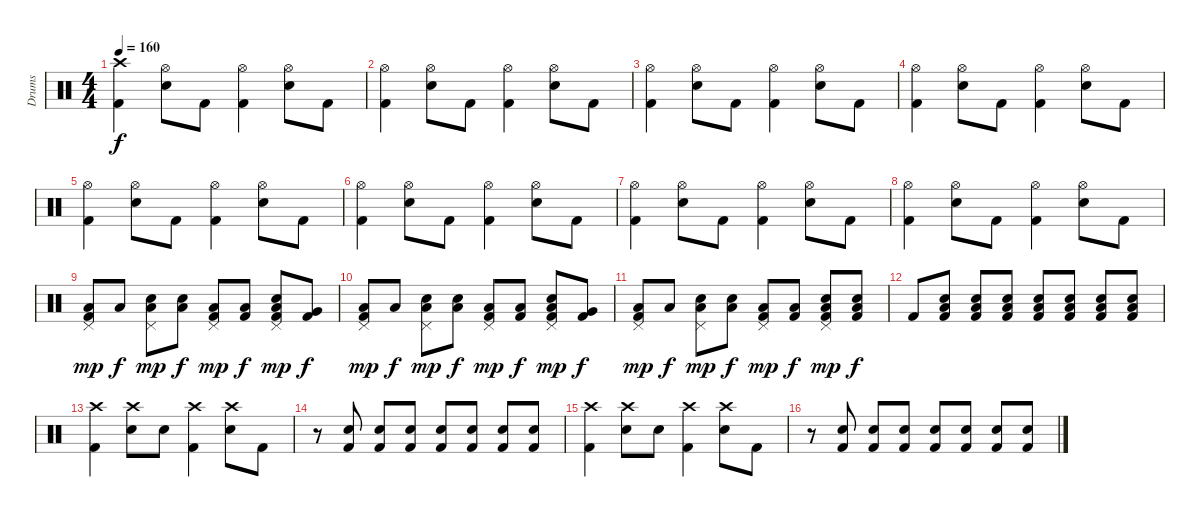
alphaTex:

\track ("Drums" "Drums") {instrument percussion}
\staff {score}
\articulation defaults
\ts (4 4)
\tempo 160
\clef neutral
\ks c
("Crash high (hit)" "Kick (hit) 2").4{dy f} ("Hi-Hat (open)" "Electric Snare (hit)").8 "Kick (hit) 2".8 ("Hi-Hat (open)" "Kick (hit) 2").4 ("Hi-Hat (open)" "Electric Snare (hit)").8 "Kick (hit) 2".8 |
("Hi-Hat (open)" "Kick (hit) 2").4 ("Hi-Hat (open)" "Electric Snare (hit)").8 "Kick (hit) 2".8 ("Hi-Hat (open)" "Kick (hit) 2").4 ("Hi-Hat (open)" "Electric Snare (hit)").8 "Kick (hit) 2".8 |
("Hi-Hat (open)" "Kick (hit) 2").4 ("Hi-Hat (open)" "Electric Snare (hit)").8 "Kick (hit) 2".8 ("Hi-Hat (open)" "Kick (hit) 2").4 ("Hi-Hat (open)" "Electric Snare (hit)").8 "Kick (hit) 2".8 |
("Hi-Hat (open)" "Kick (hit) 2").4 ("Hi-Hat (open)" "Electric Snare (hit)").8 "Kick (hit) 2".8 ("Hi-Hat (open)" "Kick (hit) 2").4 ("Hi-Hat (open)" "Electric Snare (hit)").8 "Kick (hit) 2".8 |
("Hi-Hat (open)" "Kick (hit) 2").4 ("Hi-Hat (open)" "Electric Snare (hit)").8 "Kick (hit) 2".8 ("Hi-Hat (open)" "Kick (hit) 2").4 ("Hi-Hat (open)" "Electric Snare (hit)").8 "Kick (hit) 2".8 |
("Hi-Hat (open)" "Kick (hit) 2").4 ("Hi-Hat (open)" "Electric Snare (hit)").8 "Kick (hit) 2".8 ("Hi-Hat (open)" "Kick (hit) 2").4 ("Hi-Hat (open)" "Electric Snare (hit)").8 "Kick (hit) 2".8 |
("Hi-Hat (open)" "Kick (hit) 2").4 ("Hi-Hat (open)" "Electric Snare (hit)").8 "Kick (hit) 2".8 ("Hi-Hat (open)" "Kick (hit) 2").4 ("Hi-Hat (open)" "Electric Snare (hit)").8 "Kick (hit) 2".8 |
("Hi-Hat (open)" "Kick (hit) 2").4 ("Hi-Hat (open)" "Electric Snare (hit)").8 "Kick (hit) 2".8 ("Hi-Hat (open)" "Kick (hit) 2").4 ("Hi-Hat (open)" "Electric Snare (hit)").8 "Kick (hit) 2".8 |
("Pedal Hi-Hat (hit)" "Low Floor Tom (hit)" "Kick (hit) 2").8{dy mp} "Low Floor Tom (hit)".8{dy f} ("Pedal Hi-Hat (hit)" "Electric Snare (hit)" "Low Floor Tom (hit)").8{dy mp} ("Electric Snare (hit)" "Low Floor Tom (hit)").8{dy f} ("Pedal Hi-Hat (hit)" "Low Floor Tom (hit)" "Kick (hit) 2").8{dy mp} ("Low Floor Tom (hit)" "Kick (hit) 2").8{dy f} ("Pedal Hi-Hat (hit)" "Low Tom (hit)" "Electric Snare (hit)" "Kick (hit) 2").8{dy mp} ("Very Low Tom (hit)" "Kick (hit) 2").8{dy f} |
("Pedal Hi-Hat (hit)" "Low Floor Tom (hit)" "Kick (hit) 2").8{dy mp} "Low Floor Tom (hit)".8{dy f} ("Pedal Hi-Hat (hit)" "Electric Snare (hit)" "Low Floor Tom (hit)").8{dy mp} ("Electric Snare (hit)" "Low Floor Tom (hit)").8{dy f} ("Pedal Hi-Hat (hit)" "Low Floor Tom (hit)" "Kick (hit) 2").8{dy mp} ("Low Floor Tom (hit)" "Kick (hit) 2").8{dy f} ("Pedal Hi-Hat (hit)" "Low Tom (hit)" "Electric Snare (hit)" "Kick (hit) 2").8{dy mp} ("Very Low Tom (hit)" "Kick (hit) 2").8{dy f} |
("Pedal Hi-Hat (hit)" "Low Floor Tom (hit)" "Kick (hit) 2").8{dy mp} "Low Floor Tom (hit)".8{dy f} ("Pedal Hi-Hat (hit)" "Electric Snare (hit)" "Low Floor Tom (hit)").8{dy mp} ("Electric Snare (hit)" "Low Floor Tom (hit)").8{dy f} ("Pedal Hi-Hat (hit)" "Low Floor Tom (hit)" "Kick (hit) 2").8{dy mp} ("Low Floor Tom (hit)" "Kick (hit) 2").8{dy f} ("Pedal Hi-Hat (hit)" "Electric Snare (hit)" "Low Floor Tom (hit)" "Kick (hit) 2").8{dy mp} ("Electric Snare (hit)" "Low Floor Tom (hit)" "Kick (hit) 2").8{dy f} |
"Kick (hit) 2".8 ("Electric Snare (hit)" "Low Floor Tom (hit)" "Kick (hit) 2").8 ("Electric Snare (hit)" "Low Floor Tom (hit)" "Kick (hit) 2").8 ("Electric Snare (hit)" "Low Floor Tom (hit)" "Kick (hit) 2").8 ("Electric Snare (hit)" "Low Floor Tom (hit)" "Kick (hit) 2").8 ("Electric Snare (hit)" "Low Floor Tom (hit)" "Kick (hit) 2").8 ("Electric Snare (hit)" "Low Floor Tom (hit)" "Kick (hit) 2").8 ("Electric Snare (hit)" "Low Floor Tom (hit)" "Kick (hit) 2").8 |
("Crash high (hit)" "Kick (hit) 2").4 ("Crash high (hit)" "Electric Snare (hit)").8 "Electric Snare (hit)".8 ("Crash high (hit)" "Kick (hit) 2").4 ("Crash high (hit)" "Electric Snare (hit)").8 "Kick (hit) 2".8 |
r.8 ("Electric Snare (hit)" "Kick (hit) 2").8 ("Electric Snare (hit)" "Kick (hit) 2").8 ("Electric Snare (hit)" "Kick (hit) 2").8 ("Electric Snare (hit)" "Kick (hit) 2").8 ("Electric Snare (hit)" "Kick (hit) 2").8 ("Electric Snare (hit)" "Kick (hit) 2").8 ("Electric Snare (hit)" "Kick (hit) 2").8 |
("Crash high (hit)" "Kick (hit) 2").4 ("Crash high (hit)" "Electric Snare (hit)").8 "Electric Snare (hit)".8 ("Crash high (hit)" "Kick (hit) 2").4 ("Crash high (hit)" "Electric Snare (hit)").8 "Kick (hit) 2".8 |
r.8 ("Electric Snare (hit)" "Kick (hit) 2").8 ("Electric Snare (hit)" "Kick (hit) 2").8 ("Electric Snare (hit)" "Kick (hit) 2").8 ("Electric Snare (hit)" "Kick (hit) 2").8 ("Electric Snare (hit)" "Kick (hit) 2").8 ("Electric Snare (hit)" "Kick (hit) 2").8 ("Electric Snare (hit)" "Kick (hit) 2").8
